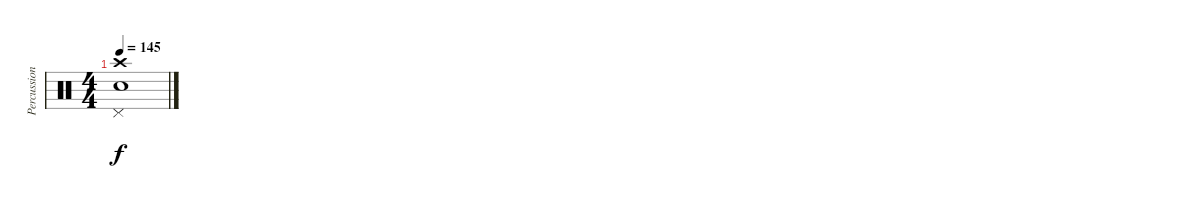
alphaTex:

\track ("Percussion" "Percussion") {instrument percussion}
\staff {score}
\articulation defaults
\ts (4 4)
\tempo 145
\clef neutral
\ks c
("Crash high (hit)" "Pedal Hi-Hat (hit)" "Electric Snare (hit)").1{dy f}
